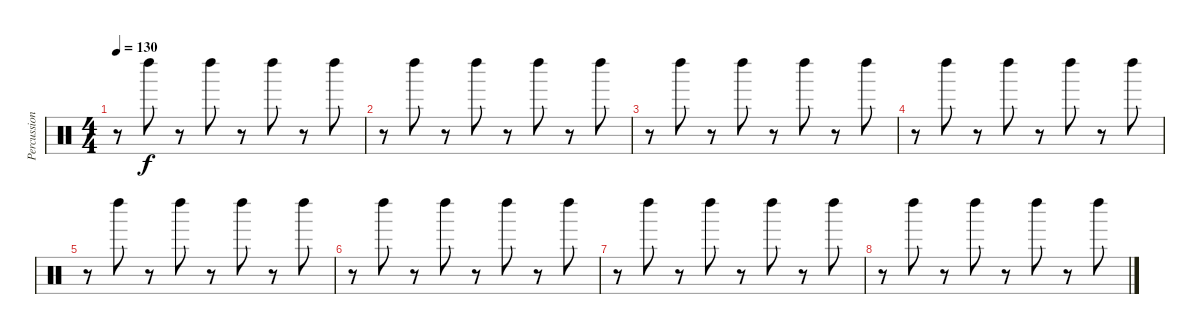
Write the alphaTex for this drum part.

\track ("Percussion" "Percussion") {instrument percussion}
\staff {score}
\articulation defaults
\ts (4 4)
\tempo 130
\clef neutral
\ks c
r.8{dy f} "Left Maraca (hit)".8 r.8 "Left Maraca (hit)".8 r.8 "Left Maraca (hit)".8 r.8 "Left Maraca (hit)".8 |
r.8 "Left Maraca (hit)".8 r.8 "Left Maraca (hit)".8 r.8 "Left Maraca (hit)".8 r.8 "Left Maraca (hit)".8 |
r.8 "Left Maraca (hit)".8 r.8 "Left Maraca (hit)".8 r.8 "Left Maraca (hit)".8 r.8 "Left Maraca (hit)".8 |
r.8 "Left Maraca (hit)".8 r.8 "Left Maraca (hit)".8 r.8 "Left Maraca (hit)".8 r.8 "Left Maraca (hit)".8 |
r.8 "Left Maraca (hit)".8 r.8 "Left Maraca (hit)".8 r.8 "Left Maraca (hit)".8 r.8 "Left Maraca (hit)".8 |
r.8 "Left Maraca (hit)".8 r.8 "Left Maraca (hit)".8 r.8 "Left Maraca (hit)".8 r.8 "Left Maraca (hit)".8 |
r.8 "Left Maraca (hit)".8 r.8 "Left Maraca (hit)".8 r.8 "Left Maraca (hit)".8 r.8 "Left Maraca (hit)".8 |
r.8 "Left Maraca (hit)".8 r.8 "Left Maraca (hit)".8 r.8 "Left Maraca (hit)".8 r.8 "Left Maraca (hit)".8
